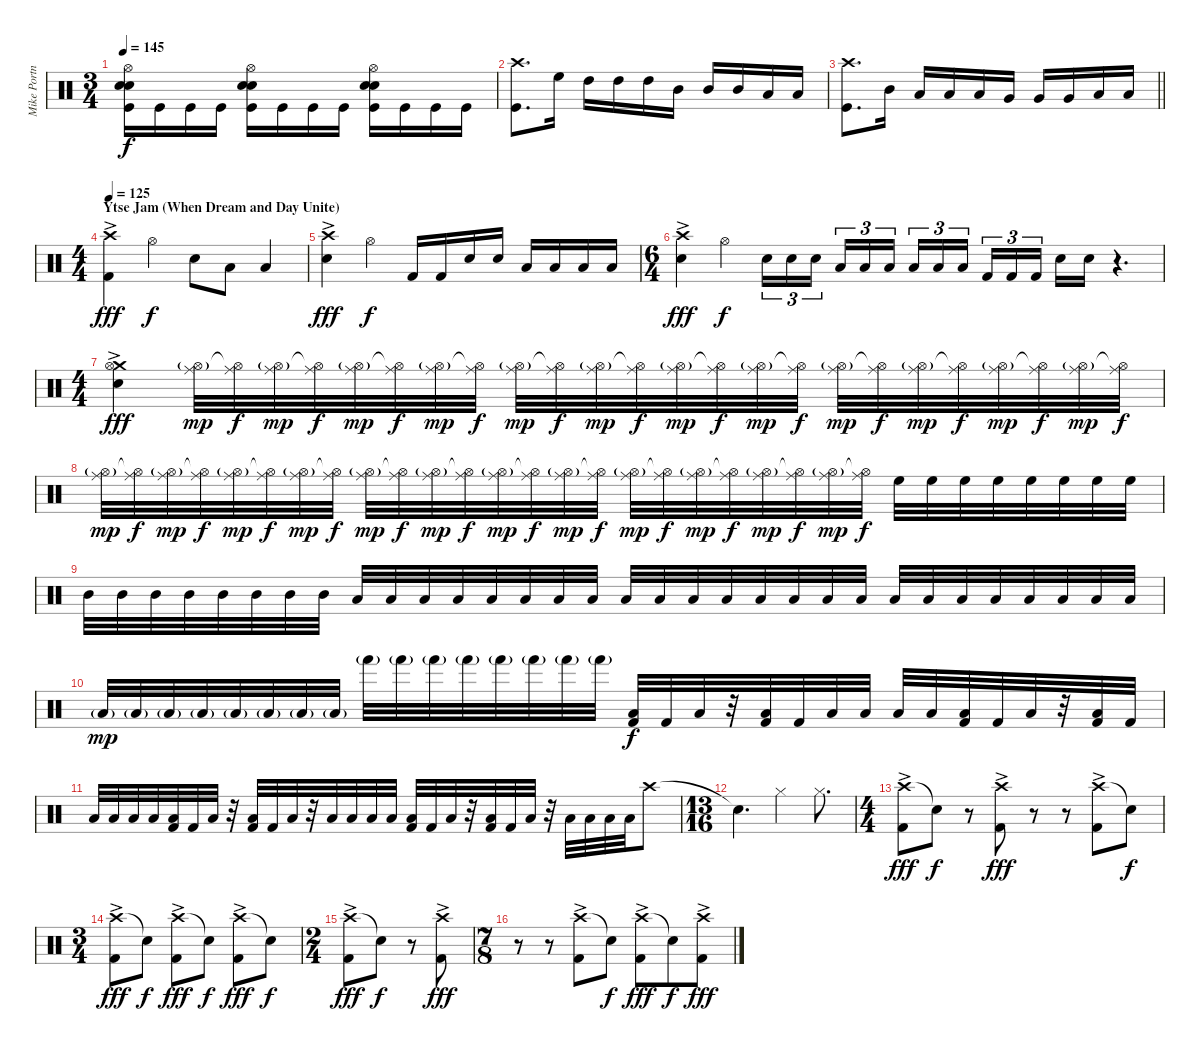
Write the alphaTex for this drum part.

\track ("Mike Portnoy Drums" "Mike Portn") {instrument percussion}
\staff {score}
\articulation defaults
\ts (3 4)
\tempo 145
\clef neutral
\ks c
("Hi-Hat (open)" "Snare (hit) 2" "Electric Snare (hit)" "Kick (hit)").16{dy f} "Kick (hit)".16 "Kick (hit)".16 "Kick (hit)".16 ("Hi-Hat (open)" "Snare (hit) 2" "Electric Snare (hit)" "Kick (hit)").16 "Kick (hit)".16 "Kick (hit)".16 "Kick (hit)".16 ("Hi-Hat (open)" "Snare (hit) 2" "Electric Snare (hit)" "Kick (hit)").16 "Kick (hit)".16 "Kick (hit)".16 "Kick (hit)".16 |
("Crash high (hit)" "Kick (hit)").8{d} "High Floor Tom (hit)".16 "High Tom (hit)".16 "High Tom (hit)".16 "High Tom (hit)".16 "Mid Tom (hit)".16 "Mid Tom (hit)".16 "Mid Tom (hit)".16 "Low Tom (hit)".16 "Low Tom (hit)".16 |
\barLineRight lightlight
("Crash high (hit)" "Kick (hit)").8{d} "Mid Tom (hit)".16 "Low Tom (hit)".16 "Low Tom (hit)".16 "Low Tom (hit)".16 "Very Low Tom (hit)".16 "Very Low Tom (hit)".16 "Very Low Tom (hit)".16 "Low Floor Tom (hit)".16 "Low Floor Tom (hit)".16 |
\ts (4 4)
\section ("" "Ytse Jam (When Dream and Day Unite)")
\tempo 125
("Crash high (hit)"{ac} "Kick (hit) 2").4{dy fff volume 14} "Hi-Hat (open)".4{dy f} "Snare (hit) 2".8 "Low Tom (hit)".8 "Low Floor Tom (hit)".4 |
("Crash high (hit)"{ac} "Snare (hit) 2").4{dy fff} "Hi-Hat (open)".4{dy f} "Kick (hit) 2".16 "Kick (hit) 2".16 "Snare (hit) 2".16 "Snare (hit) 2".16 "Low Tom (hit)".16 "Low Tom (hit)".16 "Low Floor Tom (hit)".16 "Low Floor Tom (hit)".16 |
\ts (6 4)
("Crash high (hit)"{ac} "Snare (hit) 2").4{dy fff} "Hi-Hat (open)".4{dy f} "Snare (hit) 2".16{tu (3 2)} "Snare (hit) 2".16{tu (3 2)} "Snare (hit) 2".16{tu (3 2) beam splitsecondary} "Low Tom (hit)".16{tu (3 2)} "Low Tom (hit)".16{tu (3 2)} "Low Tom (hit)".16{tu (3 2)} "Low Floor Tom (hit)".16{tu (3 2)} "Low Floor Tom (hit)".16{tu (3 2)} "Low Floor Tom (hit)".16{tu (3 2) beam splitsecondary} "Kick (hit) 2".16{tu (3 2)} "Kick (hit) 2".16{tu (3 2)} "Kick (hit) 2".16{tu (3 2) beam splitsecondary} "Snare (hit) 2".16 "Snare (hit) 2".16 r.4{d} |
\ts (4 4)
("Crash medium (hit)"{ac} "Hi-Hat (open)" "Snare (hit) 2").4{dy fff} ("Ride (middle)" "Hi-Hat (open)"{g}).32{dy mp volume 10} ("Ride (middle)" "Hi-Hat (open)"{t}).32{dy f} ("Ride (middle)" "Hi-Hat (open)"{g}).32{dy mp} ("Ride (middle)" "Hi-Hat (open)"{t}).32{dy f} ("Ride (middle)" "Hi-Hat (open)"{g}).32{dy mp} ("Ride (middle)" "Hi-Hat (open)"{t}).32{dy f} ("Ride (middle)" "Hi-Hat (open)"{g}).32{dy mp} ("Ride (middle)" "Hi-Hat (open)"{t}).32{dy f} ("Ride (middle)" "Hi-Hat (open)"{g}).32{dy mp} ("Ride (middle)" "Hi-Hat (open)"{t}).32{dy f} ("Ride (middle)" "Hi-Hat (open)"{g}).32{dy mp} ("Ride (middle)" "Hi-Hat (open)"{t}).32{dy f} ("Ride (middle)" "Hi-Hat (open)"{g}).32{dy mp} ("Ride (middle)" "Hi-Hat (open)"{t}).32{dy f} ("Ride (middle)" "Hi-Hat (open)"{g}).32{dy mp} ("Ride (middle)" "Hi-Hat (open)"{t}).32{dy f} ("Ride (middle)" "Hi-Hat (open)"{g}).32{dy mp} ("Ride (middle)" "Hi-Hat (open)"{t}).32{dy f} ("Ride (middle)" "Hi-Hat (open)"{g}).32{dy mp} ("Ride (middle)" "Hi-Hat (open)"{t}).32{dy f} ("Ride (middle)" "Hi-Hat (open)"{g}).32{dy mp} ("Ride (middle)" "Hi-Hat (open)"{t}).32{dy f} ("Ride (middle)" "Hi-Hat (open)"{g}).32{dy mp} ("Ride (middle)" "Hi-Hat (open)"{t}).32{dy f} |
("Ride (middle)" "Hi-Hat (open)"{g}).32{dy mp} ("Ride (middle)" "Hi-Hat (open)"{t}).32{dy f} ("Ride (middle)" "Hi-Hat (open)"{g}).32{dy mp} ("Ride (middle)" "Hi-Hat (open)"{t}).32{dy f} ("Ride (middle)" "Hi-Hat (open)"{g}).32{dy mp} ("Ride (middle)" "Hi-Hat (open)"{t}).32{dy f} ("Ride (middle)" "Hi-Hat (open)"{g}).32{dy mp} ("Ride (middle)" "Hi-Hat (open)"{t}).32{dy f} ("Ride (middle)" "Hi-Hat (open)"{g}).32{dy mp} ("Ride (middle)" "Hi-Hat (open)"{t}).32{dy f} ("Ride (middle)" "Hi-Hat (open)"{g}).32{dy mp} ("Ride (middle)" "Hi-Hat (open)"{t}).32{dy f} ("Ride (middle)" "Hi-Hat (open)"{g}).32{dy mp} ("Ride (middle)" "Hi-Hat (open)"{t}).32{dy f} ("Ride (middle)" "Hi-Hat (open)"{g}).32{dy mp} ("Ride (middle)" "Hi-Hat (open)"{t}).32{dy f} ("Ride (middle)" "Hi-Hat (open)"{g}).32{dy mp} ("Ride (middle)" "Hi-Hat (open)"{t}).32{dy f} ("Ride (middle)" "Hi-Hat (open)"{g}).32{dy mp} ("Ride (middle)" "Hi-Hat (open)"{t}).32{dy f} ("Ride (middle)" "Hi-Hat (open)"{g}).32{dy mp} ("Ride (middle)" "Hi-Hat (open)"{t}).32{dy f} ("Ride (middle)" "Hi-Hat (open)"{g}).32{dy mp} ("Ride (middle)" "Hi-Hat (open)"{t}).32{dy f} "High Floor Tom (hit)".32 "High Floor Tom (hit)".32 "High Floor Tom (hit)".32 "High Floor Tom (hit)".32 "High Floor Tom (hit)".32 "High Floor Tom (hit)".32 "High Floor Tom (hit)".32 "High Floor Tom (hit)".32 |
"Mid Tom (hit)".32 "Mid Tom (hit)".32 "Mid Tom (hit)".32 "Mid Tom (hit)".32 "Mid Tom (hit)".32 "Mid Tom (hit)".32 "Mid Tom (hit)".32 "Mid Tom (hit)".32 "Low Tom (hit)".32 "Low Tom (hit)".32 "Low Tom (hit)".32 "Low Tom (hit)".32 "Low Tom (hit)".32 "Low Tom (hit)".32 "Low Tom (hit)".32 "Low Tom (hit)".32 "Low Floor Tom (hit)".32 "Low Floor Tom (hit)".32 "Low Floor Tom (hit)".32 "Low Floor Tom (hit)".32 "Low Floor Tom (hit)".32 "Low Floor Tom (hit)".32 "Low Floor Tom (hit)".32 "Low Floor Tom (hit)".32 "Low Floor Tom (hit)".32 "Low Floor Tom (hit)".32 "Low Floor Tom (hit)".32 "Low Floor Tom (hit)".32 "Low Floor Tom (hit)".32 "Low Floor Tom (hit)".32 "Low Floor Tom (hit)".32 "Low Floor Tom (hit)".32 |
"Low Floor Tom (hit)"{g}.32{dy mp} "Low Floor Tom (hit)"{g}.32 "Low Floor Tom (hit)"{g}.32 "Low Floor Tom (hit)"{g}.32 "Low Floor Tom (hit)"{g}.32 "Low Floor Tom (hit)"{g}.32 "Low Floor Tom (hit)"{g}.32 "Low Floor Tom (hit)"{g}.32 "Hand (hit)"{g}.32 "Hand (hit)"{g}.32 "Hand (hit)"{g}.32 "Hand (hit)"{g}.32 "Hand (hit)"{g}.32 "Hand (hit)"{g}.32 "Hand (hit)"{g}.32 "Hand (hit)"{g}.32 ("Low Floor Tom (hit)" "Kick (hit) 2").32{dy f} "Kick (hit) 2".32 "Low Floor Tom (hit)".32 r.32 ("Low Floor Tom (hit)" "Kick (hit) 2").32 "Kick (hit) 2".32 "Low Floor Tom (hit)".32 "Low Floor Tom (hit)".32 "Low Floor Tom (hit)".32 "Low Floor Tom (hit)".32 ("Low Floor Tom (hit)" "Kick (hit) 2").32 "Kick (hit) 2".32 "Low Floor Tom (hit)".32 r.32 ("Low Floor Tom (hit)" "Kick (hit) 2").32 "Kick (hit) 2".32 |
"Low Floor Tom (hit)".32 "Low Floor Tom (hit)".32 "Low Floor Tom (hit)".32 "Low Floor Tom (hit)".32 ("Low Floor Tom (hit)" "Kick (hit) 2").32 "Kick (hit) 2".32 "Low Floor Tom (hit)".32 r.32 ("Low Floor Tom (hit)" "Kick (hit) 2").32 "Kick (hit) 2".32 "Low Floor Tom (hit)".32 r.32 "Low Floor Tom (hit)".32 "Low Floor Tom (hit)".32 "Low Floor Tom (hit)".32 "Low Floor Tom (hit)".32 ("Low Floor Tom (hit)" "Kick (hit) 2").32 "Kick (hit) 2".32 "Low Floor Tom (hit)".32 r.32 ("Low Floor Tom (hit)" "Kick (hit) 2").32 "Kick (hit) 2".32 "Low Floor Tom (hit)".32 r.32 "Low Floor Tom (hit)".32 "Low Floor Tom (hit)".32 "Low Floor Tom (hit)".32 "Low Floor Tom (hit)".32 "Crash high (hit)".8{volume 13} |
\ts (13 16)
"Snare (hit)"{t}.4{d} "Hi-Hat (closed)".4 "Hi-Hat (closed)".8{d} |
\ts (4 4)
("Crash high (hit)"{ac} "Kick (hit) 2").8{dy fff} "Snare (hit)"{t}.8{dy f} r.8 ("Crash high (hit)"{ac} "Kick (hit) 2").8{dy fff} r.8 r.8 ("Crash high (hit)"{ac} "Kick (hit) 2").8 "Snare (hit)"{t}.8{dy f} |
\ts (3 4)
("Crash high (hit)"{ac} "Kick (hit) 2").8{dy fff} "Snare (hit)"{t}.8{dy f} ("Crash high (hit)"{ac} "Kick (hit) 2").8{dy fff} "Snare (hit)"{t}.8{dy f} ("Crash high (hit)"{ac} "Kick (hit) 2").8{dy fff} "Snare (hit)"{t}.8{dy f} |
\ts (2 4)
("Crash high (hit)"{ac} "Kick (hit) 2").8{dy fff} "Snare (hit)"{t}.8{dy f} r.8 ("Crash high (hit)"{ac} "Kick (hit) 2").8{dy fff} |
\ts (7 8)
r.8 r.8 ("Crash high (hit)"{ac} "Kick (hit) 2").8 "Snare (hit)"{t}.8{dy f} ("Crash high (hit)"{ac} "Kick (hit) 2").8{dy fff} "Snare (hit)"{t}.8{dy f} ("Crash high (hit)"{ac} "Kick (hit) 2").8{dy fff}
